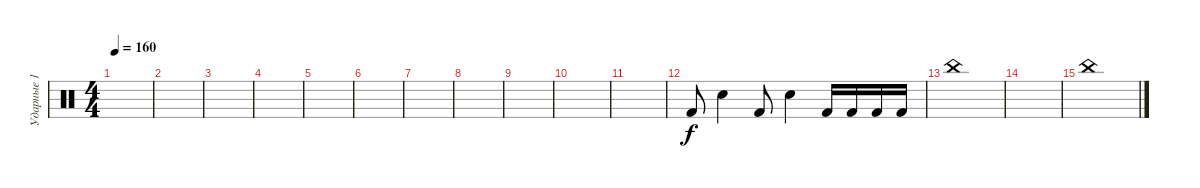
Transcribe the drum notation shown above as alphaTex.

\track ("Ударные 1" "Ударные 1") {instrument percussion}
\staff {score}
\articulation defaults
\ts (4 4)
\tempo 160
\clef neutral
\ks c
|
|
|
|
|
|
|
|
|
|
|
"Kick (hit) 2".8 "Hand Clap (hit)".4 "Kick (hit) 2".8 "Hand Clap (hit)".4 "Kick (hit) 2".16 "Kick (hit) 2".16 "Kick (hit) 2".16 "Kick (hit) 2".16 |
"China (hit)".1 |
|
"China (hit)".1
